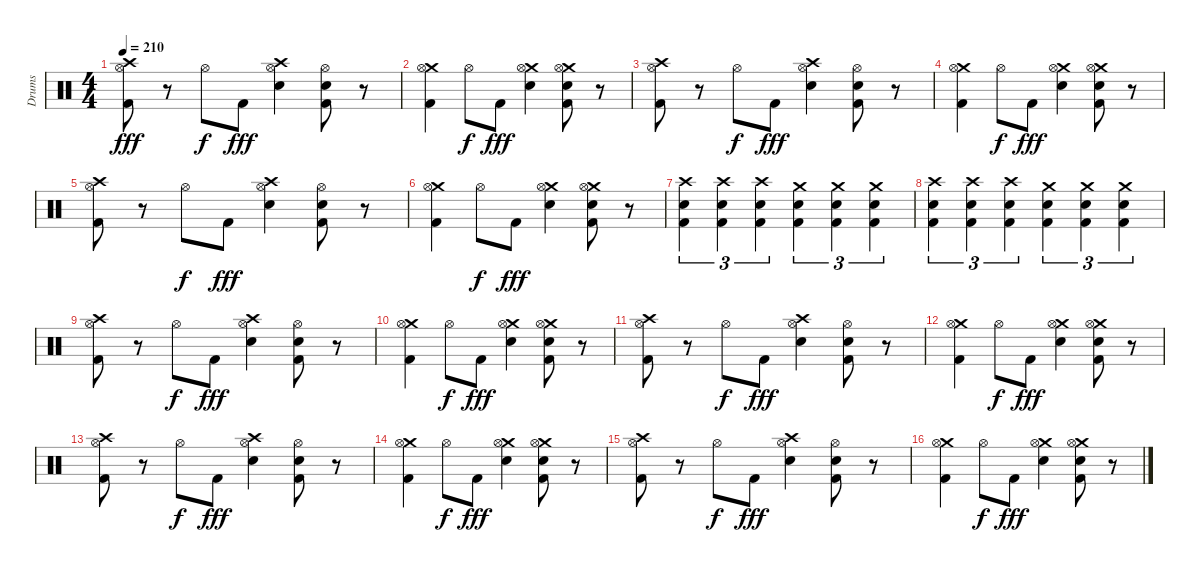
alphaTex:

\track ("Drums" "Drums") {instrument percussion}
\staff {score}
\articulation defaults
\ts (4 4)
\tempo 210
\clef neutral
\ks c
("Crash high (hit)" "Hi-Hat (open)" "Kick (hit) 2").8{dy fff} r.8 "Hi-Hat (open)".8{dy f} "Kick (hit) 2".8{dy fff} ("Crash high (hit)" "Hi-Hat (open)" "Electric Snare (hit)").4 ("Hi-Hat (open)" "Electric Snare (hit)" "Kick (hit) 2").8 r.8 |
("Crash medium (hit)" "Hi-Hat (open)" "Kick (hit) 2").4 "Hi-Hat (open)".8{dy f} "Kick (hit) 2".8{dy fff} ("Crash medium (hit)" "Hi-Hat (open)" "Electric Snare (hit)").4 ("Crash medium (hit)" "Hi-Hat (open)" "Electric Snare (hit)" "Kick (hit) 2").8 r.8 |
("Crash high (hit)" "Hi-Hat (open)" "Kick (hit) 2").8 r.8 "Hi-Hat (open)".8{dy f} "Kick (hit) 2".8{dy fff} ("Crash high (hit)" "Hi-Hat (open)" "Electric Snare (hit)").4 ("Hi-Hat (open)" "Electric Snare (hit)" "Kick (hit) 2").8 r.8 |
("Crash medium (hit)" "Hi-Hat (open)" "Kick (hit) 2").4 "Hi-Hat (open)".8{dy f} "Kick (hit) 2".8{dy fff} ("Crash medium (hit)" "Hi-Hat (open)" "Electric Snare (hit)").4 ("Crash medium (hit)" "Hi-Hat (open)" "Electric Snare (hit)" "Kick (hit) 2").8 r.8 |
("Crash high (hit)" "Hi-Hat (open)" "Kick (hit) 2").8 r.8 "Hi-Hat (open)".8{dy f} "Kick (hit) 2".8{dy fff} ("Crash high (hit)" "Hi-Hat (open)" "Electric Snare (hit)").4 ("Hi-Hat (open)" "Electric Snare (hit)" "Kick (hit) 2").8 r.8 |
("Crash medium (hit)" "Hi-Hat (open)" "Kick (hit) 2").4 "Hi-Hat (open)".8{dy f} "Kick (hit) 2".8{dy fff} ("Crash medium (hit)" "Hi-Hat (open)" "Electric Snare (hit)").4 ("Crash medium (hit)" "Hi-Hat (open)" "Electric Snare (hit)" "Kick (hit) 2").8 r.8 |
("Crash high (hit)" "Electric Snare (hit)" "Kick (hit) 2").4{tu (3 2)} ("Crash high (hit)" "Electric Snare (hit)" "Kick (hit) 2").4{tu (3 2)} ("Crash high (hit)" "Electric Snare (hit)" "Kick (hit) 2").4{tu (3 2)} ("Crash medium (hit)" "Electric Snare (hit)" "Kick (hit) 2").4{tu (3 2)} ("Crash medium (hit)" "Electric Snare (hit)" "Kick (hit) 2").4{tu (3 2)} ("Crash medium (hit)" "Electric Snare (hit)" "Kick (hit) 2").4{tu (3 2)} |
("Crash high (hit)" "Electric Snare (hit)" "Kick (hit) 2").4{tu (3 2)} ("Crash high (hit)" "Electric Snare (hit)" "Kick (hit) 2").4{tu (3 2)} ("Crash high (hit)" "Electric Snare (hit)" "Kick (hit) 2").4{tu (3 2)} ("Crash medium (hit)" "Electric Snare (hit)" "Kick (hit) 2").4{tu (3 2)} ("Crash medium (hit)" "Electric Snare (hit)" "Kick (hit) 2").4{tu (3 2)} ("Crash medium (hit)" "Electric Snare (hit)" "Kick (hit) 2").4{tu (3 2)} |
("Crash high (hit)" "Hi-Hat (open)" "Kick (hit) 2").8 r.8 "Hi-Hat (open)".8{dy f} "Kick (hit) 2".8{dy fff} ("Crash high (hit)" "Hi-Hat (open)" "Electric Snare (hit)").4 ("Hi-Hat (open)" "Electric Snare (hit)" "Kick (hit) 2").8 r.8 |
("Crash medium (hit)" "Hi-Hat (open)" "Kick (hit) 2").4 "Hi-Hat (open)".8{dy f} "Kick (hit) 2".8{dy fff} ("Crash medium (hit)" "Hi-Hat (open)" "Electric Snare (hit)").4 ("Crash medium (hit)" "Hi-Hat (open)" "Electric Snare (hit)" "Kick (hit) 2").8 r.8 |
("Crash high (hit)" "Hi-Hat (open)" "Kick (hit) 2").8 r.8 "Hi-Hat (open)".8{dy f} "Kick (hit) 2".8{dy fff} ("Crash high (hit)" "Hi-Hat (open)" "Electric Snare (hit)").4 ("Hi-Hat (open)" "Electric Snare (hit)" "Kick (hit) 2").8 r.8 |
("Crash medium (hit)" "Hi-Hat (open)" "Kick (hit) 2").4 "Hi-Hat (open)".8{dy f} "Kick (hit) 2".8{dy fff} ("Crash medium (hit)" "Hi-Hat (open)" "Electric Snare (hit)").4 ("Crash medium (hit)" "Hi-Hat (open)" "Electric Snare (hit)" "Kick (hit) 2").8 r.8 |
("Crash high (hit)" "Hi-Hat (open)" "Kick (hit) 2").8 r.8 "Hi-Hat (open)".8{dy f} "Kick (hit) 2".8{dy fff} ("Crash high (hit)" "Hi-Hat (open)" "Electric Snare (hit)").4 ("Hi-Hat (open)" "Electric Snare (hit)" "Kick (hit) 2").8 r.8 |
("Crash medium (hit)" "Hi-Hat (open)" "Kick (hit) 2").4 "Hi-Hat (open)".8{dy f} "Kick (hit) 2".8{dy fff} ("Crash medium (hit)" "Hi-Hat (open)" "Electric Snare (hit)").4 ("Crash medium (hit)" "Hi-Hat (open)" "Electric Snare (hit)" "Kick (hit) 2").8 r.8 |
("Crash high (hit)" "Hi-Hat (open)" "Kick (hit) 2").8 r.8 "Hi-Hat (open)".8{dy f} "Kick (hit) 2".8{dy fff} ("Crash high (hit)" "Hi-Hat (open)" "Electric Snare (hit)").4 ("Hi-Hat (open)" "Electric Snare (hit)" "Kick (hit) 2").8 r.8 |
("Crash medium (hit)" "Hi-Hat (open)" "Kick (hit) 2").4 "Hi-Hat (open)".8{dy f} "Kick (hit) 2".8{dy fff} ("Crash medium (hit)" "Hi-Hat (open)" "Electric Snare (hit)").4 ("Crash medium (hit)" "Hi-Hat (open)" "Electric Snare (hit)" "Kick (hit) 2").8 r.8
